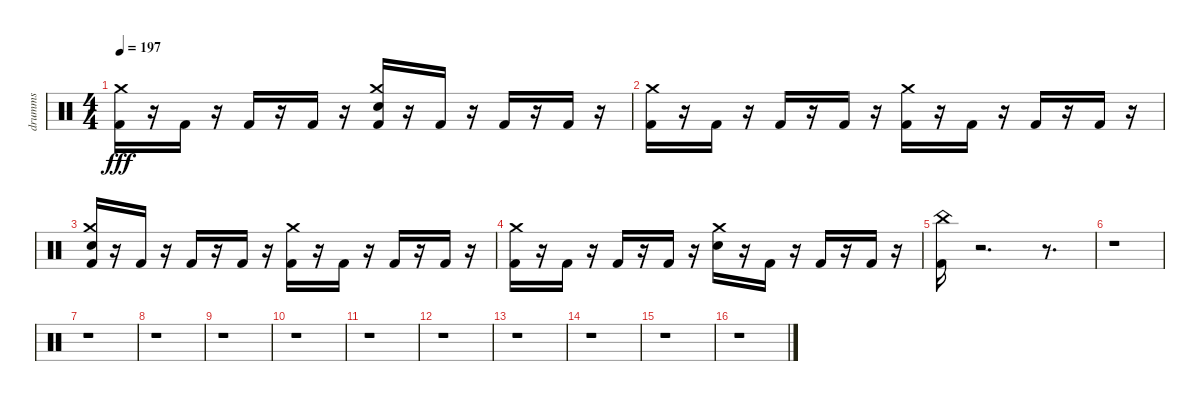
\track ("drumms" "drumms") {instrument percussion}
\staff {score}
\articulation defaults
\ts (4 4)
\tempo 197
\clef neutral
\ks c
("Kick (hit) 2" "Crash medium (hit)").16{dy fff} r.16 "Kick (hit) 2".16 r.16 "Kick (hit) 2".16 r.16 "Kick (hit) 2".16 r.16 ("Kick (hit) 2" "Snare (hit) 2" "Crash medium (hit)").16 r.16 "Kick (hit) 2".16 r.16 "Kick (hit) 2".16 r.16 "Kick (hit) 2".16 r.16 |
("Kick (hit) 2" "Crash medium (hit)").16 r.16 "Kick (hit) 2".16 r.16 "Kick (hit) 2".16 r.16 "Kick (hit) 2".16 r.16 ("Kick (hit) 2" "Crash medium (hit)").16 r.16 "Kick (hit) 2".16 r.16 "Kick (hit) 2".16 r.16 "Kick (hit) 2".16 r.16 |
("Kick (hit) 2" "Snare (hit) 2" "Crash medium (hit)").16 r.16 "Kick (hit) 2".16 r.16 "Kick (hit) 2".16 r.16 "Kick (hit) 2".16 r.16 ("Kick (hit) 2" "Crash medium (hit)").16 r.16 "Kick (hit) 2".16 r.16 "Kick (hit) 2".16 r.16 "Kick (hit) 2".16 r.16 |
("Kick (hit) 2" "Crash medium (hit)").16 r.16 "Kick (hit) 2".16 r.16 "Kick (hit) 2".16 r.16 "Kick (hit) 2".16 r.16 ("Snare (hit) 2" "Crash medium (hit)").16 r.16 "Kick (hit) 2".16 r.16 "Kick (hit) 2".16 r.16 "Kick (hit) 2".16 r.16 |
("Kick (hit) 2" "China (hit)").16 r.2{d} r.8{d} |
r.1 |
r.1 |
r.1 |
r.1 |
r.1 |
r.1 |
r.1 |
r.1 |
r.1 |
r.1 |
r.1
